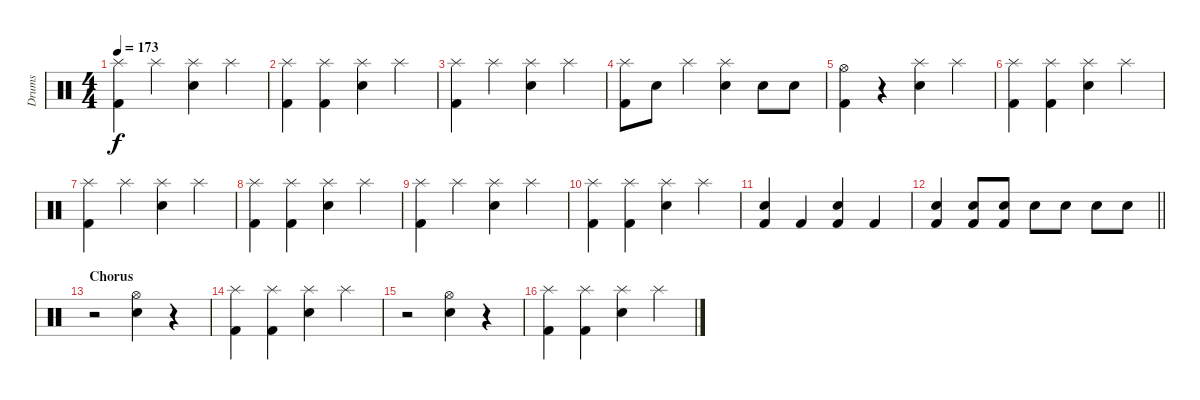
\track ("Drums" "Drums") {instrument percussion}
\staff {score}
\articulation defaults
\ts (4 4)
\tempo 173
\clef neutral
\ks c
("Splash (hit)" "Kick (hit) 2").4{dy f} "Splash (hit)".4 ("Splash (hit)" "Snare (hit) 2").4 "Splash (hit)".4 |
("Splash (hit)" "Kick (hit) 2").4 ("Splash (hit)" "Kick (hit) 2").4 ("Splash (hit)" "Snare (hit) 2").4 "Splash (hit)".4 |
("Splash (hit)" "Kick (hit) 2").4 "Splash (hit)".4 ("Splash (hit)" "Snare (hit) 2").4 "Splash (hit)".4 |
("Splash (hit)" "Kick (hit) 2").8 "Snare (hit) 2".8 "Splash (hit)".4 ("Splash (hit)" "Snare (hit) 2").4 "Snare (hit) 2".8 "Snare (hit) 2".8 |
("Hi-Hat (open)" "Kick (hit) 2").4 r.4 ("Splash (hit)" "Snare (hit) 2").4 "Splash (hit)".4 |
("Splash (hit)" "Kick (hit) 2").4 ("Splash (hit)" "Kick (hit) 2").4 ("Splash (hit)" "Snare (hit) 2").4 "Splash (hit)".4 |
("Splash (hit)" "Kick (hit) 2").4 "Splash (hit)".4 ("Splash (hit)" "Snare (hit) 2").4 "Splash (hit)".4 |
("Splash (hit)" "Kick (hit) 2").4 ("Splash (hit)" "Kick (hit) 2").4 ("Splash (hit)" "Snare (hit) 2").4 "Splash (hit)".4 |
("Splash (hit)" "Kick (hit) 2").4 "Splash (hit)".4 ("Splash (hit)" "Snare (hit) 2").4 "Splash (hit)".4 |
("Splash (hit)" "Kick (hit) 2").4 ("Splash (hit)" "Kick (hit) 2").4 ("Splash (hit)" "Snare (hit) 2").4 "Splash (hit)".4 |
("Snare (hit) 2" "Kick (hit) 2").4 "Kick (hit) 2".4 ("Snare (hit) 2" "Kick (hit) 2").4 "Kick (hit) 2".4 |
\barLineRight lightlight
("Snare (hit) 2" "Kick (hit) 2").4 ("Snare (hit) 2" "Kick (hit) 2").8 ("Snare (hit) 2" "Kick (hit) 2").8 "Snare (hit) 2".8 "Snare (hit) 2".8 "Snare (hit) 2".8 "Snare (hit) 2".8 |
\section ("" "Chorus")
r.2 ("Hi-Hat (open)" "Snare (hit) 2").4 r.4 |
("Splash (hit)" "Kick (hit) 2").4 ("Splash (hit)" "Kick (hit) 2").4 ("Splash (hit)" "Snare (hit) 2").4 "Splash (hit)".4 |
r.2 ("Hi-Hat (open)" "Snare (hit) 2").4 r.4 |
("Splash (hit)" "Kick (hit) 2").4 ("Splash (hit)" "Kick (hit) 2").4 ("Splash (hit)" "Snare (hit) 2").4 "Splash (hit)".4
